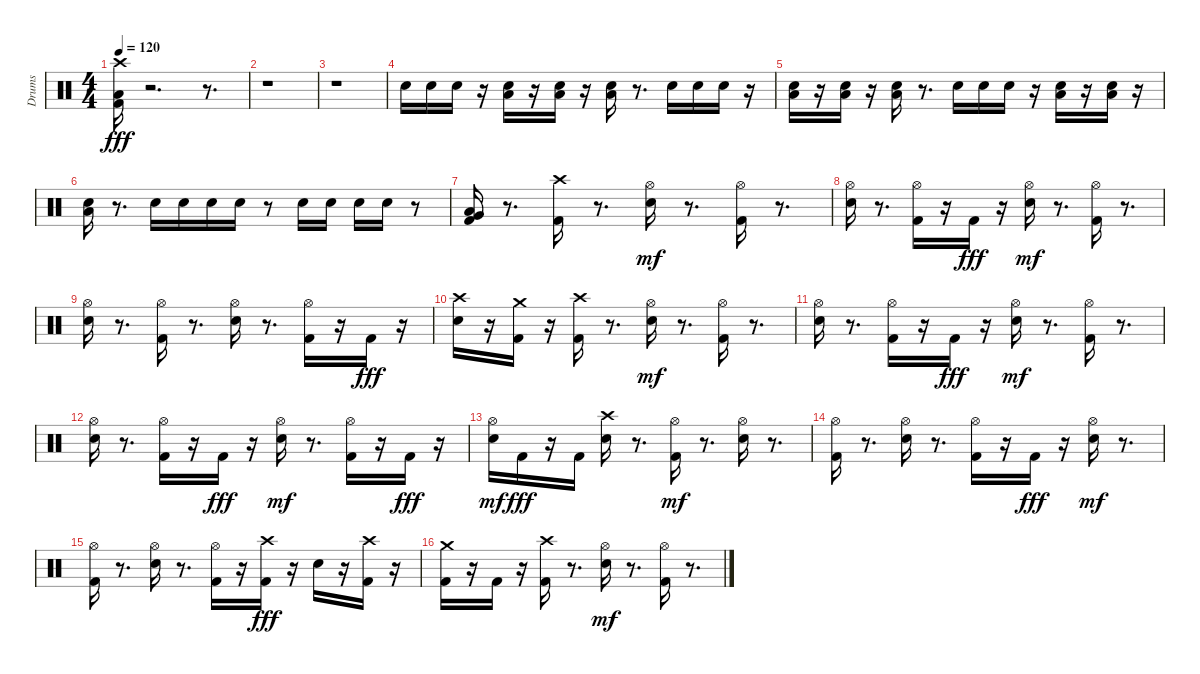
\track ("Drums" "Drums") {instrument percussion}
\staff {score}
\articulation defaults
\ts (4 4)
\tempo 120
\clef neutral
\ks c
("Kick (hit) 2" "Low Floor Tom (hit)" "Crash high (hit)").16{dy fff} r.2{d} r.8{d} |
r.1 |
r.1 |
"Electric Snare (hit)".16 "Electric Snare (hit)".16 "Electric Snare (hit)".16 r.16 ("Electric Snare (hit)" "Low Floor Tom (hit)").16 r.16 ("Electric Snare (hit)" "Low Floor Tom (hit)").16 r.16 ("Electric Snare (hit)" "Low Floor Tom (hit)").16 r.8{d} "Electric Snare (hit)".16 "Electric Snare (hit)".16 "Electric Snare (hit)".16 r.16 |
("Electric Snare (hit)" "Low Floor Tom (hit)").16 r.16 ("Electric Snare (hit)" "Low Floor Tom (hit)").16 r.16 ("Electric Snare (hit)" "Low Floor Tom (hit)").16 r.8{d} "Electric Snare (hit)".16 "Electric Snare (hit)".16 "Electric Snare (hit)".16 r.16 ("Electric Snare (hit)" "Low Floor Tom (hit)").16 r.16 ("Electric Snare (hit)" "Low Floor Tom (hit)").16 r.16 |
("Electric Snare (hit)" "Low Floor Tom (hit)").16 r.8{d} "Electric Snare (hit)".16 "Electric Snare (hit)".16 "Electric Snare (hit)".16 "Electric Snare (hit)".16 r.8 "Electric Snare (hit)".16 "Electric Snare (hit)".16 "Electric Snare (hit)".16 "Electric Snare (hit)".16 r.8 |
("Kick (hit) 2" "Low Floor Tom (hit)" "Very Low Tom (hit)").16 r.8{d} ("Kick (hit) 2" "Crash high (hit)").16 r.8{d} ("Electric Snare (hit)" "Hi-Hat (open)").16{dy mf} r.8{d} ("Kick (hit) 2" "Hi-Hat (open)").16 r.8{d} |
("Electric Snare (hit)" "Hi-Hat (open)").16 r.8{d} ("Kick (hit) 2" "Hi-Hat (open)").16 r.16 "Kick (hit) 2".16{dy fff} r.16 ("Electric Snare (hit)" "Hi-Hat (open)").16{dy mf} r.8{d} ("Kick (hit) 2" "Hi-Hat (open)").16 r.8{d} |
("Electric Snare (hit)" "Hi-Hat (open)").16 r.8{d} ("Kick (hit) 2" "Hi-Hat (open)").16 r.8{d} ("Electric Snare (hit)" "Hi-Hat (open)").16 r.8{d} ("Kick (hit) 2" "Hi-Hat (open)").16 r.16 "Kick (hit) 2".16{dy fff} r.16 |
("Electric Snare (hit)" "Crash high (hit)").16 r.16 ("Kick (hit) 2" "Crash medium (hit)").16 r.16 ("Kick (hit) 2" "Crash high (hit)").16 r.8{d} ("Electric Snare (hit)" "Hi-Hat (open)").16{dy mf} r.8{d} ("Kick (hit) 2" "Hi-Hat (open)").16 r.8{d} |
("Electric Snare (hit)" "Hi-Hat (open)").16 r.8{d} ("Kick (hit) 2" "Hi-Hat (open)").16 r.16 "Kick (hit) 2".16{dy fff} r.16 ("Electric Snare (hit)" "Hi-Hat (open)").16{dy mf} r.8{d} ("Kick (hit) 2" "Hi-Hat (open)").16 r.8{d} |
("Electric Snare (hit)" "Hi-Hat (open)").16 r.8{d} ("Kick (hit) 2" "Hi-Hat (open)").16 r.16 "Kick (hit) 2".16{dy fff} r.16 ("Electric Snare (hit)" "Hi-Hat (open)").16{dy mf} r.8{d} ("Kick (hit) 2" "Hi-Hat (open)").16 r.16 "Kick (hit) 2".16{dy fff} r.16 |
("Electric Snare (hit)" "Hi-Hat (open)").16{dy mf} "Kick (hit) 2".16{dy fff} r.16 "Kick (hit) 2".16 ("Electric Snare (hit)" "Crash high (hit)").16 r.8{d} ("Kick (hit) 2" "Hi-Hat (open)").16{dy mf} r.8{d} ("Electric Snare (hit)" "Hi-Hat (open)").16 r.8{d} |
("Kick (hit) 2" "Hi-Hat (open)").16 r.8{d} ("Electric Snare (hit)" "Hi-Hat (open)").16 r.8{d} ("Kick (hit) 2" "Hi-Hat (open)").16 r.16 "Kick (hit) 2".16{dy fff} r.16 ("Electric Snare (hit)" "Hi-Hat (open)").16{dy mf} r.8{d} |
("Kick (hit) 2" "Hi-Hat (open)").16 r.8{d} ("Electric Snare (hit)" "Hi-Hat (open)").16 r.8{d} ("Kick (hit) 2" "Hi-Hat (open)").16 r.16 ("Kick (hit) 2" "Crash high (hit)").16{dy fff} r.16 "Electric Snare (hit)".16 r.16 ("Kick (hit) 2" "Crash high (hit)").16 r.16 |
("Kick (hit) 2" "Crash medium (hit)").16 r.16 "Kick (hit) 2".16 r.16 ("Kick (hit) 2" "Crash high (hit)").16 r.8{d} ("Electric Snare (hit)" "Hi-Hat (open)").16{dy mf} r.8{d} ("Kick (hit) 2" "Hi-Hat (open)").16 r.8{d}
